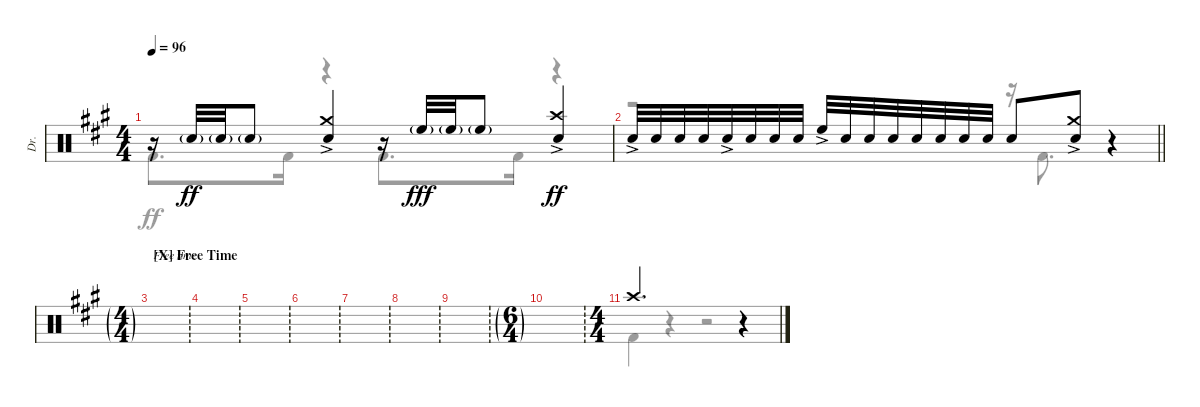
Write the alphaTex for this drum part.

\defaultSystemsLayout 4
\bracketExtendMode groupsimilarinstruments
\otherSystemsTrackNameOrientation horizontal
\track ("Drums" "Dr.") {instrument percussion}
\staff {score}
\articulation defaults
\voice
\ts (4 4)
\tempo 96
\clef neutral
\ks a
r.16{dy ff} "Snare (hit) 2"{g acc forcenatural}.32 "Snare (hit) 2"{g acc forcenatural}.32 "Snare (hit) 2"{g acc forcenatural}.8 ("Snare (hit) 2"{ac acc forcenatural} "Crash medium (hit)"{acc forcenatural}).4 r.16 "High Floor Tom (hit)"{g acc forcenatural}.32{dy fff} "High Floor Tom (hit)"{g acc forcenatural}.32 "High Floor Tom (hit)"{g acc forcenatural}.8 ("Snare (hit) 2"{ac acc forcenatural} "Crash high (hit)"{ac acc forcenatural}).4{dy ff} |
\barLineRight lightlight "Snare (hit) 2"{ac acc forcenatural}.32 "Snare (hit) 2"{acc forcenatural}.32 "Snare (hit) 2"{acc forcenatural}.32 "Snare (hit) 2"{acc forcenatural}.32 "Snare (hit) 2"{ac acc forcenatural}.32 "Snare (hit) 2"{acc forcenatural}.32 "Snare (hit) 2"{acc forcenatural}.32 "Snare (hit) 2"{acc forcenatural}.32 "High Floor Tom (hit)"{ac acc forcenatural}.32 "Snare (hit) 2"{acc forcenatural}.32 "Snare (hit) 2"{acc forcenatural}.32 "Snare (hit) 2"{acc forcenatural}.32 "Snare (hit) 2"{acc forcenatural}.32 "Snare (hit) 2"{acc forcenatural}.32 "Snare (hit) 2"{acc forcenatural}.32 "Snare (hit) 2"{acc forcenatural}.32 "Snare (hit) 2"{acc forcenatural}.8
("Snare (hit) 2"{ac acc forcenatural} "Crash medium (hit)"{ac acc forcenatural}).8 r.4 |
\ft
\section ("X" "Free Time")
|
\ft
|
\ft
|
\ft
|
\ft
|
\ft
|
\ft
|
\ts (6 4)
\ft
|
\ts (4 4)
"Crash high (hit)"{acc forcenatural}.2{d} r.4 |
|
|
|
\voice
\clef neutral
\ottava regular
\simile none
\ks a "Kick (hit) 2"{acc forcenatural}.8{d dy ff} "Kick (hit) 2"{acc forcenatural}.16
r.4 "Kick (hit) 2"{acc forcenatural}.8{d} "Kick (hit) 2"{acc forcenatural}.16 r.4 |
\barLineRight lightlight
r.2 r.16 "Kick (hit) 2"{acc forcenatural}.8{d} r.4 |
|
|
|
|
|
|
|
|
"Kick (hit) 2"{acc forcenatural}.4 r.4 r.2 |
|
|
|
